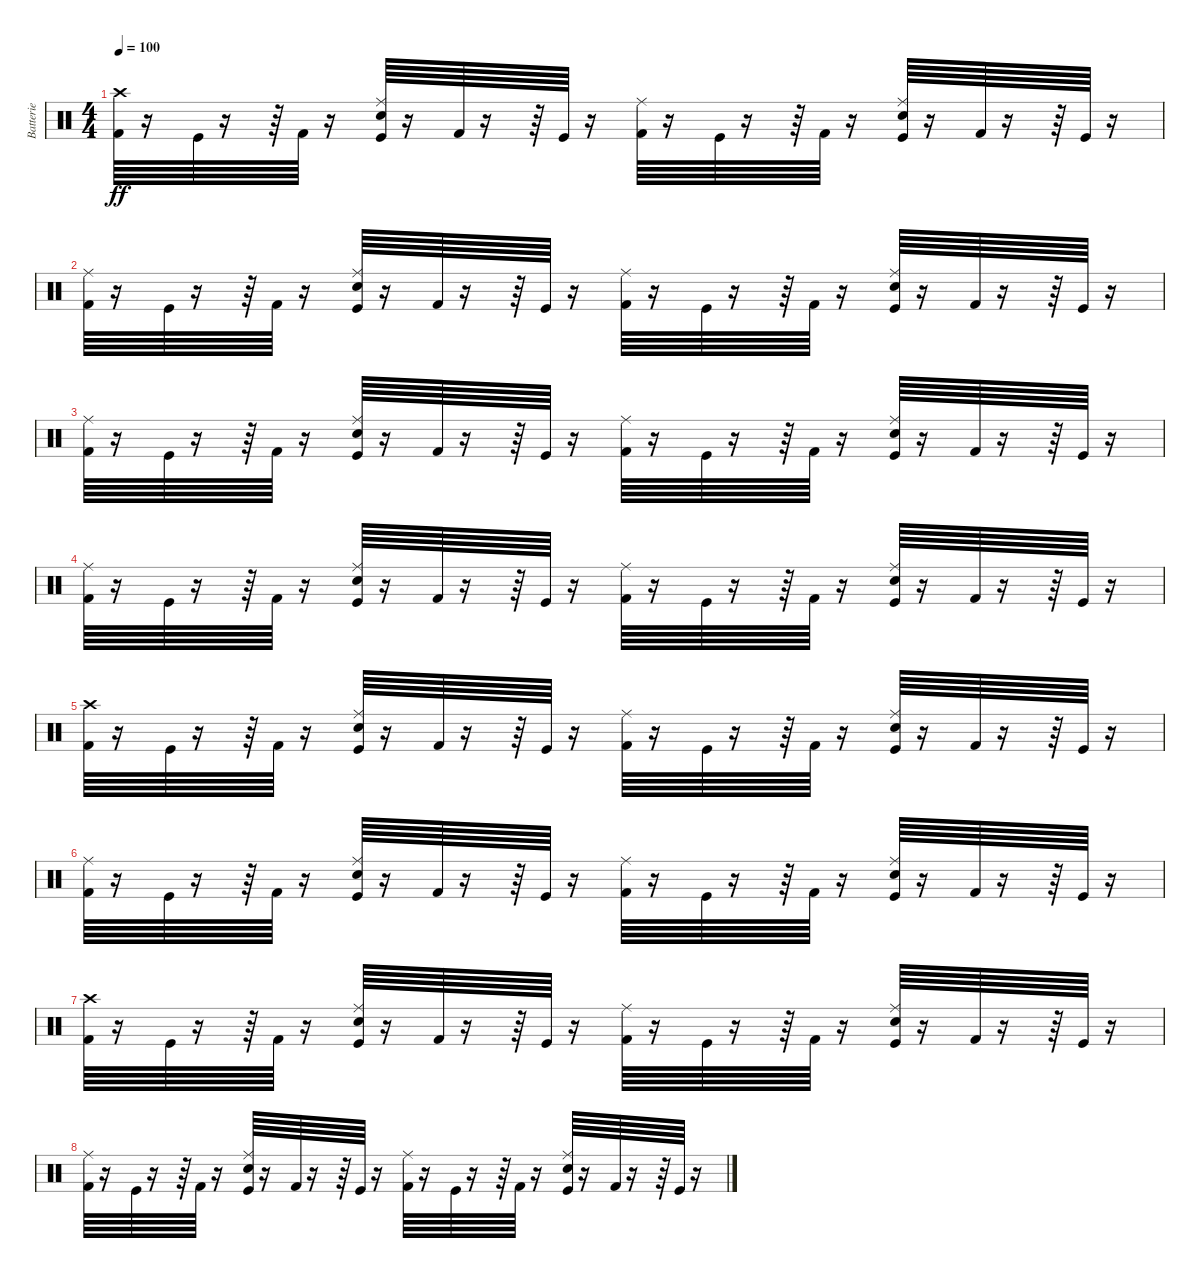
\track ("Batterie" "Batterie") {instrument percussion}
\staff {score}
\articulation defaults
\ts (4 4)
\tempo 100
\clef neutral
\ks c
("Crash high (hit)" "Kick (hit) 2").64{dy ff} r.16 "Kick (hit)".64 r.16 r.64 "Kick (hit) 2".64 r.16 ("Ride (middle)" "Electric Snare (hit)" "Kick (hit)").64 r.16 "Kick (hit) 2".64 r.16 r.64 "Kick (hit)".64 r.16 ("Ride (middle)" "Kick (hit) 2").64 r.16 "Kick (hit)".64 r.16 r.64 "Kick (hit) 2".64 r.16 ("Ride (middle)" "Electric Snare (hit)" "Kick (hit)").64 r.16 "Kick (hit) 2".64 r.16 r.64 "Kick (hit)".64 r.16 |
("Ride (middle)" "Kick (hit) 2").64 r.16 "Kick (hit)".64 r.16 r.64 "Kick (hit) 2".64 r.16 ("Ride (middle)" "Electric Snare (hit)" "Kick (hit)").64 r.16 "Kick (hit) 2".64 r.16 r.64 "Kick (hit)".64 r.16 ("Ride (middle)" "Kick (hit) 2").64 r.16 "Kick (hit)".64 r.16 r.64 "Kick (hit) 2".64 r.16 ("Ride (middle)" "Electric Snare (hit)" "Kick (hit)").64 r.16 "Kick (hit) 2".64 r.16 r.64 "Kick (hit)".64 r.16 |
("Ride (middle)" "Kick (hit) 2").64 r.16 "Kick (hit)".64 r.16 r.64 "Kick (hit) 2".64 r.16 ("Ride (middle)" "Electric Snare (hit)" "Kick (hit)").64 r.16 "Kick (hit) 2".64 r.16 r.64 "Kick (hit)".64 r.16 ("Ride (middle)" "Kick (hit) 2").64 r.16 "Kick (hit)".64 r.16 r.64 "Kick (hit) 2".64 r.16 ("Ride (middle)" "Electric Snare (hit)" "Kick (hit)").64 r.16 "Kick (hit) 2".64 r.16 r.64 "Kick (hit)".64 r.16 |
("Ride (middle)" "Kick (hit) 2").64 r.16 "Kick (hit)".64 r.16 r.64 "Kick (hit) 2".64 r.16 ("Ride (middle)" "Electric Snare (hit)" "Kick (hit)").64 r.16 "Kick (hit) 2".64 r.16 r.64 "Kick (hit)".64 r.16 ("Ride (middle)" "Kick (hit) 2").64 r.16 "Kick (hit)".64 r.16 r.64 "Kick (hit) 2".64 r.16 ("Ride (middle)" "Electric Snare (hit)" "Kick (hit)").64 r.16 "Kick (hit) 2".64 r.16 r.64 "Kick (hit)".64 r.16 |
("Crash high (hit)" "Kick (hit) 2").64 r.16 "Kick (hit)".64 r.16 r.64 "Kick (hit) 2".64 r.16 ("Ride (middle)" "Electric Snare (hit)" "Kick (hit)").64 r.16 "Kick (hit) 2".64 r.16 r.64 "Kick (hit)".64 r.16 ("Ride (middle)" "Kick (hit) 2").64 r.16 "Kick (hit)".64 r.16 r.64 "Kick (hit) 2".64 r.16 ("Ride (middle)" "Electric Snare (hit)" "Kick (hit)").64 r.16 "Kick (hit) 2".64 r.16 r.64 "Kick (hit)".64 r.16 |
("Ride (middle)" "Kick (hit) 2").64 r.16 "Kick (hit)".64 r.16 r.64 "Kick (hit) 2".64 r.16 ("Ride (middle)" "Electric Snare (hit)" "Kick (hit)").64 r.16 "Kick (hit) 2".64 r.16 r.64 "Kick (hit)".64 r.16 ("Ride (middle)" "Kick (hit) 2").64 r.16 "Kick (hit)".64 r.16 r.64 "Kick (hit) 2".64 r.16 ("Ride (middle)" "Electric Snare (hit)" "Kick (hit)").64 r.16 "Kick (hit) 2".64 r.16 r.64 "Kick (hit)".64 r.16 |
("Crash high (hit)" "Kick (hit) 2").64 r.16 "Kick (hit)".64 r.16 r.64 "Kick (hit) 2".64 r.16 ("Ride (middle)" "Electric Snare (hit)" "Kick (hit)").64 r.16 "Kick (hit) 2".64 r.16 r.64 "Kick (hit)".64 r.16 ("Ride (middle)" "Kick (hit) 2").64 r.16 "Kick (hit)".64 r.16 r.64 "Kick (hit) 2".64 r.16 ("Ride (middle)" "Electric Snare (hit)" "Kick (hit)").64 r.16 "Kick (hit) 2".64 r.16 r.64 "Kick (hit)".64 r.16 |
("Ride (middle)" "Kick (hit) 2").64 r.16 "Kick (hit)".64 r.16 r.64 "Kick (hit) 2".64 r.16 ("Ride (middle)" "Electric Snare (hit)" "Kick (hit)").64 r.16 "Kick (hit) 2".64 r.16 r.64 "Kick (hit)".64 r.16 ("Ride (middle)" "Kick (hit) 2").64 r.16 "Kick (hit)".64 r.16 r.64 "Kick (hit) 2".64 r.16 ("Ride (middle)" "Electric Snare (hit)" "Kick (hit)").64 r.16 "Kick (hit) 2".64 r.16 r.64 "Kick (hit)".64 r.16
